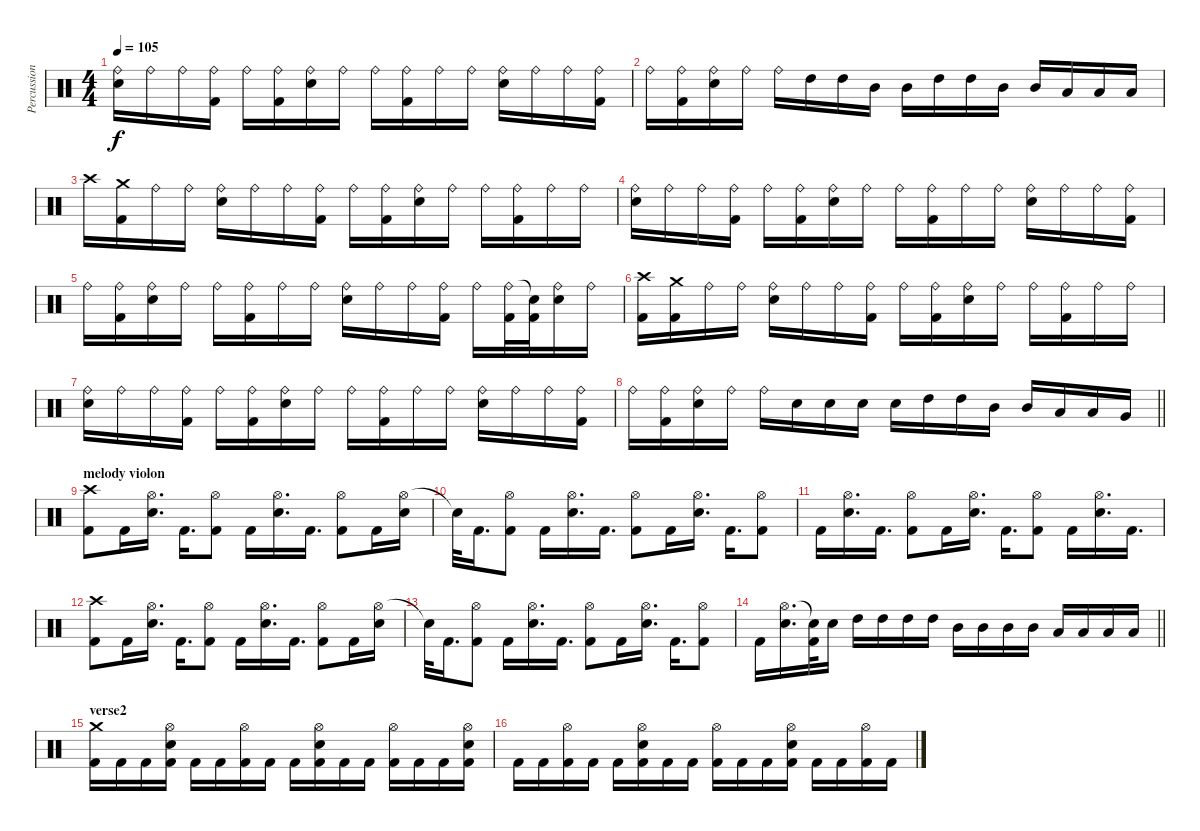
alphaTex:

\track ("Percussions" "Percussion") {instrument percussion}
\staff {score}
\articulation defaults
\ts (4 4)
\tempo 105
\clef neutral
\ks c
("Ride (bell)" "Snare (hit) 2").16{dy f} "Ride (bell)".16 "Ride (bell)".16 ("Ride (bell)" "Kick (hit) 2").16 "Ride (bell)".16 ("Ride (bell)" "Kick (hit) 2").16 ("Ride (bell)" "Snare (hit) 2").16 "Ride (bell)".16 "Ride (bell)".16 ("Ride (bell)" "Kick (hit) 2").16 "Ride (bell)".16 "Ride (bell)".16 ("Ride (bell)" "Snare (hit) 2").16 "Ride (bell)".16 "Ride (bell)".16 ("Ride (bell)" "Kick (hit) 2").16 |
"Ride (bell)".16 ("Ride (bell)" "Kick (hit) 2").16 ("Ride (bell)" "Snare (hit) 2").16 "Ride (bell)".16 "Ride (bell)".16 "High Tom (hit)".16 "High Tom (hit)".16 "Mid Tom (hit)".16 "Mid Tom (hit)".16 "High Tom (hit)".16 "High Tom (hit)".16 "Mid Tom (hit)".16 "Mid Tom (hit)".16 "Low Tom (hit)".16 "Low Tom (hit)".16 "Low Tom (hit)".16 |
"Crash high (hit)".16 ("Crash medium (hit)" "Kick (hit) 2").16 "Ride (bell)".16 "Ride (bell)".16 ("Ride (bell)" "Snare (hit) 2").16 "Ride (bell)".16 "Ride (bell)".16 ("Ride (bell)" "Kick (hit) 2").16 "Ride (bell)".16 ("Ride (bell)" "Kick (hit) 2").16 ("Ride (bell)" "Snare (hit) 2").16 "Ride (bell)".16 "Ride (bell)".16 ("Ride (bell)" "Kick (hit) 2").16 "Ride (bell)".16 "Ride (bell)".16 |
("Ride (bell)" "Snare (hit) 2").16 "Ride (bell)".16 "Ride (bell)".16 ("Ride (bell)" "Kick (hit) 2").16 "Ride (bell)".16 ("Ride (bell)" "Kick (hit) 2").16 ("Ride (bell)" "Snare (hit) 2").16 "Ride (bell)".16 "Ride (bell)".16 ("Ride (bell)" "Kick (hit) 2").16 "Ride (bell)".16 "Ride (bell)".16 ("Ride (bell)" "Snare (hit) 2").16 "Ride (bell)".16 "Ride (bell)".16 ("Ride (bell)" "Kick (hit) 2").16 |
"Ride (bell)".16 ("Ride (bell)" "Kick (hit) 2").16 ("Ride (bell)" "Snare (hit) 2").16 "Ride (bell)".16 "Ride (bell)".16 ("Ride (bell)" "Kick (hit) 2").16 "Ride (bell)".16 "Ride (bell)".16 ("Ride (bell)" "Snare (hit) 2").16 "Ride (bell)".16 "Ride (bell)".16 ("Ride (bell)" "Kick (hit) 2").16 "Ride (bell)".16 ("Ride (bell)" "Kick (hit) 2").32 ("Snare (hit)"{t} "Kick (hit) 2").32 ("Ride (bell)" "Snare (hit) 2").16 "Ride (bell)".16 |
("Crash high (hit)" "Kick (hit) 2").16 ("Crash medium (hit)" "Kick (hit) 2").16 "Ride (bell)".16 "Ride (bell)".16 ("Ride (bell)" "Snare (hit) 2").16 "Ride (bell)".16 "Ride (bell)".16 ("Ride (bell)" "Kick (hit) 2").16 "Ride (bell)".16 ("Ride (bell)" "Kick (hit) 2").16 ("Ride (bell)" "Snare (hit) 2").16 "Ride (bell)".16 "Ride (bell)".16 ("Ride (bell)" "Kick (hit) 2").16 "Ride (bell)".16 "Ride (bell)".16 |
("Ride (bell)" "Snare (hit) 2").16 "Ride (bell)".16 "Ride (bell)".16 ("Ride (bell)" "Kick (hit) 2").16 "Ride (bell)".16 ("Ride (bell)" "Kick (hit) 2").16 ("Ride (bell)" "Snare (hit) 2").16 "Ride (bell)".16 "Ride (bell)".16 ("Ride (bell)" "Kick (hit) 2").16 "Ride (bell)".16 "Ride (bell)".16 ("Ride (bell)" "Snare (hit) 2").16 "Ride (bell)".16 "Ride (bell)".16 ("Ride (bell)" "Kick (hit) 2").16 |
\barLineRight lightlight "Ride (bell)".16
("Ride (bell)" "Kick (hit) 2").16 ("Ride (bell)" "Snare (hit) 2").16 "Ride (bell)".16 "Ride (bell)".16 "Snare (hit) 2".16 "Snare (hit) 2".16 "Snare (hit) 2".16 "Snare (hit) 2".16 "High Tom (hit)".16 "High Tom (hit)".16 "Mid Tom (hit)".16 "Mid Tom (hit)".16 "Low Tom (hit)".16 "Low Tom (hit)".16 "Very Low Tom (hit)".16 |
\section ("" "melody violon")
("Crash high (hit)" "Kick (hit) 2").8 "Kick (hit) 2".16 ("Hi-Hat (open)" "Snare (hit) 2").16{d} "Kick (hit) 2".16{d} ("Hi-Hat (open)" "Kick (hit) 2").8 "Kick (hit) 2".16 ("Hi-Hat (open)" "Snare (hit) 2").16{d} "Kick (hit) 2".16{d} ("Hi-Hat (open)" "Kick (hit) 2").8 "Kick (hit) 2".16 ("Hi-Hat (open)" "Snare (hit) 2").16 |
"Snare (hit)"{t}.32 "Kick (hit) 2".16{d} ("Hi-Hat (open)" "Kick (hit) 2").8 "Kick (hit) 2".16 ("Hi-Hat (open)" "Snare (hit) 2").16{d} "Kick (hit) 2".16{d} ("Hi-Hat (open)" "Kick (hit) 2").8 "Kick (hit) 2".16 ("Hi-Hat (open)" "Snare (hit) 2").16{d} "Kick (hit) 2".16{d} ("Hi-Hat (open)" "Kick (hit) 2").8 |
"Kick (hit) 2".16 ("Hi-Hat (open)" "Snare (hit) 2").16{d} "Kick (hit) 2".16{d} ("Hi-Hat (open)" "Kick (hit) 2").8 "Kick (hit) 2".16 ("Hi-Hat (open)" "Snare (hit) 2").16{d} "Kick (hit) 2".16{d} ("Hi-Hat (open)" "Kick (hit) 2").8 "Kick (hit) 2".16 ("Hi-Hat (open)" "Snare (hit) 2").16{d} "Kick (hit) 2".16{d} |
("Crash high (hit)" "Kick (hit) 2").8 "Kick (hit) 2".16 ("Hi-Hat (open)" "Snare (hit) 2").16{d} "Kick (hit) 2".16{d} ("Hi-Hat (open)" "Kick (hit) 2").8 "Kick (hit) 2".16 ("Hi-Hat (open)" "Snare (hit) 2").16{d} "Kick (hit) 2".16{d} ("Hi-Hat (open)" "Kick (hit) 2").8 "Kick (hit) 2".16 ("Hi-Hat (open)" "Snare (hit) 2").16 |
"Snare (hit)"{t}.32 "Kick (hit) 2".16{d} ("Hi-Hat (open)" "Kick (hit) 2").8 "Kick (hit) 2".16 ("Hi-Hat (open)" "Snare (hit) 2").16{d} "Kick (hit) 2".16{d} ("Hi-Hat (open)" "Kick (hit) 2").8 "Kick (hit) 2".16 ("Hi-Hat (open)" "Snare (hit) 2").16{d} "Kick (hit) 2".16{d} ("Hi-Hat (open)" "Kick (hit) 2").8 |
\barLineRight lightlight "Kick (hit) 2".16
("Hi-Hat (open)" "Snare (hit) 2").16{d} ("Snare (hit)"{t} "Kick (hit) 2").32 "Snare (hit) 2".16 "High Tom (hit)".16 "High Tom (hit)".16 "High Tom (hit)".16 "High Tom (hit)".16 "Mid Tom (hit)".16 "Mid Tom (hit)".16 "Mid Tom (hit)".16 "Mid Tom (hit)".16 "Low Tom (hit)".16 "Low Tom (hit)".16 "Low Tom (hit)".16 "Low Tom (hit)".16 |
\section ("" "verse2")
("Crash medium (hit)" "Kick (hit) 2").16 "Kick (hit) 2".16 "Kick (hit) 2".16 ("Hi-Hat (open)" "Snare (hit) 2" "Kick (hit) 2").16 "Kick (hit) 2".16 "Kick (hit) 2".16 ("Hi-Hat (open)" "Kick (hit) 2").16 "Kick (hit) 2".16 "Kick (hit) 2".16 ("Hi-Hat (open)" "Snare (hit) 2" "Kick (hit) 2").16 "Kick (hit) 2".16 "Kick (hit) 2".16 ("Hi-Hat (open)" "Kick (hit) 2").16 "Kick (hit) 2".16 "Kick (hit) 2".16 ("Hi-Hat (open)" "Snare (hit) 2" "Kick (hit) 2").16 |
"Kick (hit) 2".16 "Kick (hit) 2".16 ("Hi-Hat (open)" "Kick (hit) 2").16 "Kick (hit) 2".16 "Kick (hit) 2".16 ("Hi-Hat (open)" "Snare (hit) 2" "Kick (hit) 2").16 "Kick (hit) 2".16 "Kick (hit) 2".16 ("Hi-Hat (open)" "Kick (hit) 2").16 "Kick (hit) 2".16 "Kick (hit) 2".16 ("Hi-Hat (open)" "Snare (hit) 2" "Kick (hit) 2").16 "Kick (hit) 2".16 "Kick (hit) 2".16 ("Hi-Hat (open)" "Kick (hit) 2").16 "Kick (hit) 2".16
